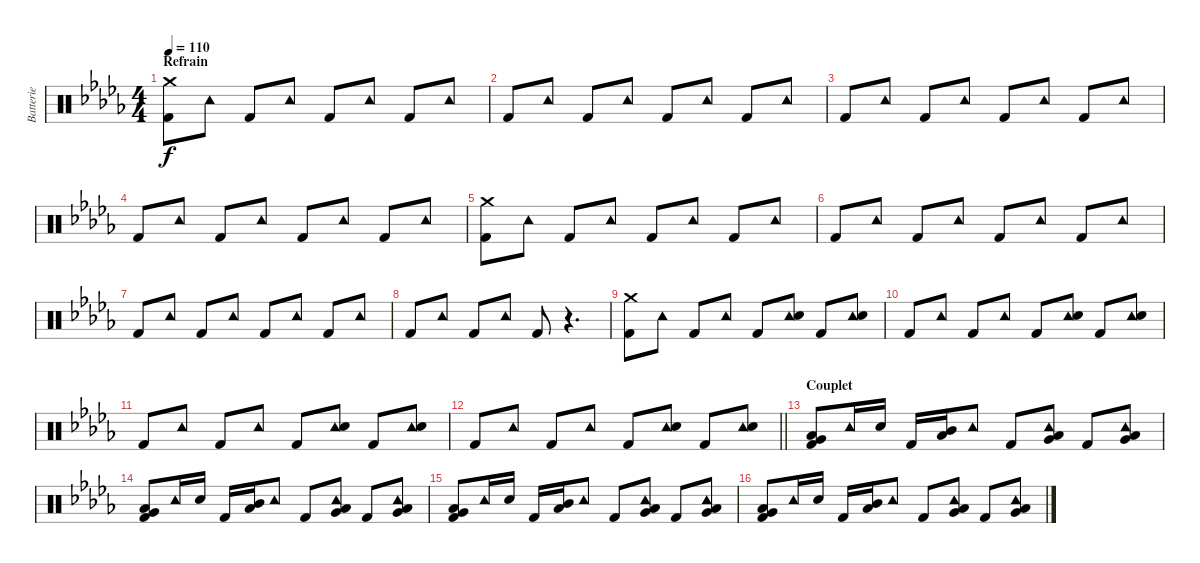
\track ("Batterie" "Batterie") {instrument percussion}
\staff {score}
\articulation defaults
\ts (4 4)
\section ("" "Refrain")
\tempo 110
\clef neutral
\ks bbminor
("Crash medium (hit)" "Kick (hit) 2").8{dy f} "Tambourine (hit)".8 "Kick (hit) 2".8 "Tambourine (hit)".8 "Kick (hit) 2".8 "Tambourine (hit)".8 "Kick (hit) 2".8 "Tambourine (hit)".8 |
"Kick (hit) 2".8 "Tambourine (hit)".8 "Kick (hit) 2".8 "Tambourine (hit)".8 "Kick (hit) 2".8 "Tambourine (hit)".8 "Kick (hit) 2".8 "Tambourine (hit)".8 |
"Kick (hit) 2".8 "Tambourine (hit)".8 "Kick (hit) 2".8 "Tambourine (hit)".8 "Kick (hit) 2".8 "Tambourine (hit)".8 "Kick (hit) 2".8 "Tambourine (hit)".8 |
"Kick (hit) 2".8 "Tambourine (hit)".8 "Kick (hit) 2".8 "Tambourine (hit)".8 "Kick (hit) 2".8 "Tambourine (hit)".8 "Kick (hit) 2".8 "Tambourine (hit)".8 |
("Crash medium (hit)" "Kick (hit) 2").8 "Tambourine (hit)".8 "Kick (hit) 2".8 "Tambourine (hit)".8 "Kick (hit) 2".8 "Tambourine (hit)".8 "Kick (hit) 2".8 "Tambourine (hit)".8 |
"Kick (hit) 2".8 "Tambourine (hit)".8 "Kick (hit) 2".8 "Tambourine (hit)".8 "Kick (hit) 2".8 "Tambourine (hit)".8 "Kick (hit) 2".8 "Tambourine (hit)".8 |
"Kick (hit) 2".8 "Tambourine (hit)".8 "Kick (hit) 2".8 "Tambourine (hit)".8 "Kick (hit) 2".8 "Tambourine (hit)".8 "Kick (hit) 2".8 "Tambourine (hit)".8 |
"Kick (hit) 2".8 "Tambourine (hit)".8 "Kick (hit) 2".8 "Tambourine (hit)".8 "Kick (hit) 2".8 r.4{d} |
("Crash medium (hit)" "Kick (hit) 2").8 "Tambourine (hit)".8 "Kick (hit) 2".8 "Tambourine (hit)".8 "Kick (hit) 2".8 ("Tambourine (hit)" "Electric Snare (hit)").8 "Kick (hit) 2".8 ("Tambourine (hit)" "Electric Snare (hit)").8 |
"Kick (hit) 2".8 "Tambourine (hit)".8 "Kick (hit) 2".8 "Tambourine (hit)".8 "Kick (hit) 2".8 ("Tambourine (hit)" "Electric Snare (hit)").8 "Kick (hit) 2".8 ("Tambourine (hit)" "Electric Snare (hit)").8 |
"Kick (hit) 2".8 "Tambourine (hit)".8 "Kick (hit) 2".8 "Tambourine (hit)".8 "Kick (hit) 2".8 ("Tambourine (hit)" "Electric Snare (hit)").8 "Kick (hit) 2".8 ("Tambourine (hit)" "Electric Snare (hit)").8 |
\barLineRight lightlight "Kick (hit) 2".8 "Tambourine (hit)".8 "Kick (hit) 2".8 "Tambourine (hit)".8 "Kick (hit) 2".8
("Tambourine (hit)" "Electric Snare (hit)").8 "Kick (hit) 2".8 ("Tambourine (hit)" "Electric Snare (hit)").8 |
\section ("" "Couplet")
("Very Low Tom (hit)" "Low Floor Tom (hit)" "Kick (hit) 2").8 "Tambourine (hit)".16 "Electric Snare (hit)".16 "Kick (hit) 2".16 ("Mid Tom (hit)" "Low Tom (hit)").16 "Tambourine (hit)".8 "Kick (hit) 2".8 ("Tambourine (hit)" "Low Tom (hit)" "Very Low Tom (hit)").8 "Kick (hit) 2".8 ("Tambourine (hit)" "Low Tom (hit)" "Very Low Tom (hit)").8 |
("Very Low Tom (hit)" "Low Floor Tom (hit)" "Kick (hit) 2").8 "Tambourine (hit)".16 "Electric Snare (hit)".16 "Kick (hit) 2".16 ("Mid Tom (hit)" "Low Tom (hit)").16 "Tambourine (hit)".8 "Kick (hit) 2".8 ("Tambourine (hit)" "Low Tom (hit)" "Very Low Tom (hit)").8 "Kick (hit) 2".8 ("Tambourine (hit)" "Low Tom (hit)" "Very Low Tom (hit)").8 |
("Very Low Tom (hit)" "Low Floor Tom (hit)" "Kick (hit) 2").8 "Tambourine (hit)".16 "Electric Snare (hit)".16 "Kick (hit) 2".16 ("Mid Tom (hit)" "Low Tom (hit)").16 "Tambourine (hit)".8 "Kick (hit) 2".8 ("Tambourine (hit)" "Low Tom (hit)" "Very Low Tom (hit)").8 "Kick (hit) 2".8 ("Tambourine (hit)" "Low Tom (hit)" "Very Low Tom (hit)").8 |
("Very Low Tom (hit)" "Low Floor Tom (hit)" "Kick (hit) 2").8 "Tambourine (hit)".16 "Electric Snare (hit)".16 "Kick (hit) 2".16 ("Mid Tom (hit)" "Low Tom (hit)").16 "Tambourine (hit)".8 "Kick (hit) 2".8 ("Tambourine (hit)" "Low Tom (hit)" "Very Low Tom (hit)").8 "Kick (hit) 2".8 ("Tambourine (hit)" "Low Tom (hit)" "Very Low Tom (hit)").8
